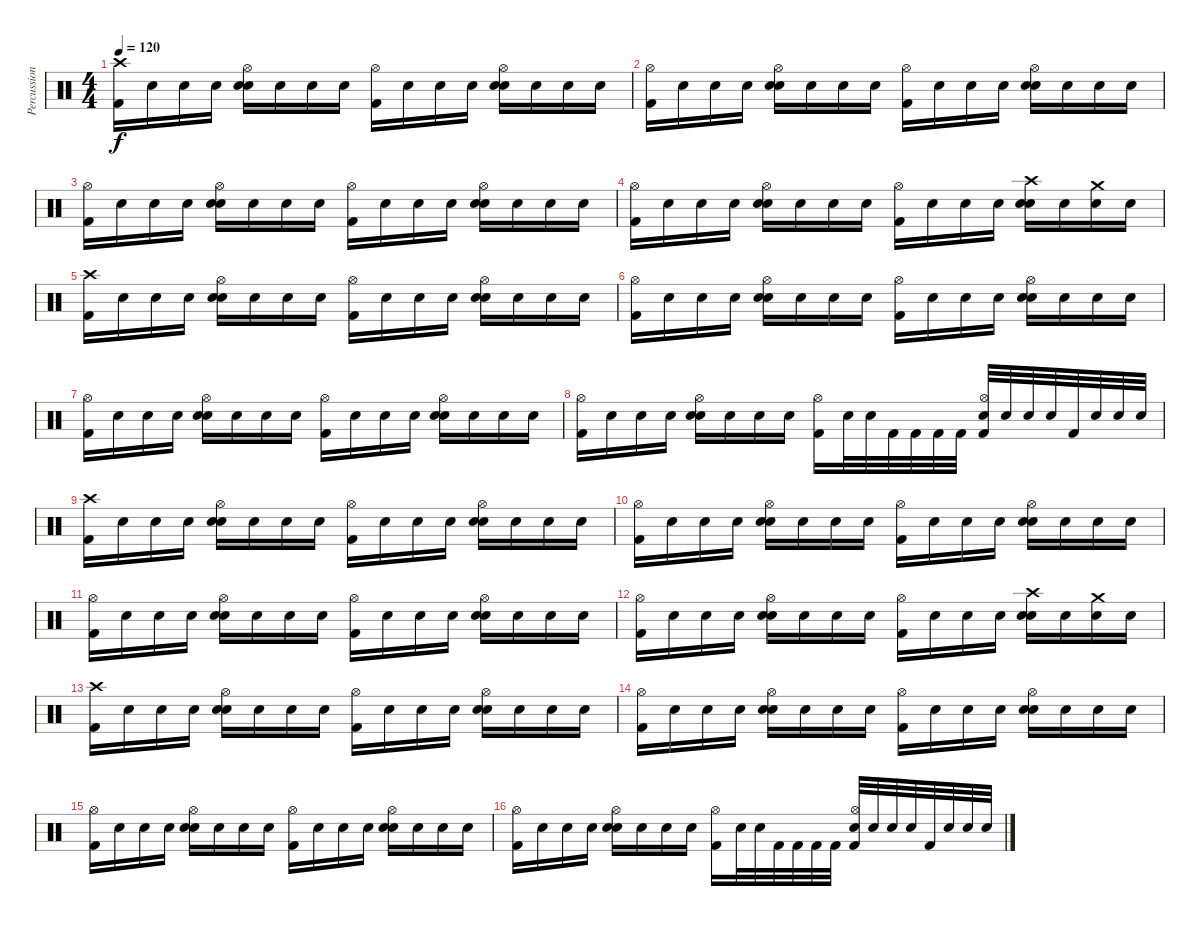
\track ("Percussion" "Percussion") {instrument percussion}
\staff {score}
\articulation defaults
\ts (4 4)
\tempo 120
\clef neutral
\ks c
("Crash high (hit)" "Kick (hit) 2").16{dy f} "Snare (hit)".16 "Snare (hit)".16 "Snare (hit)".16 ("Hi-Hat (open)" "Electric Snare (hit)" "Snare (hit)").16 "Snare (hit)".16 "Snare (hit)".16 "Snare (hit)".16 ("Hi-Hat (open)" "Kick (hit) 2").16 "Snare (hit)".16 "Snare (hit)".16 "Snare (hit)".16 ("Hi-Hat (open)" "Electric Snare (hit)" "Snare (hit)").16 "Snare (hit)".16 "Snare (hit)".16 "Snare (hit)".16 |
("Hi-Hat (open)" "Kick (hit) 2").16 "Snare (hit)".16 "Snare (hit)".16 "Snare (hit)".16 ("Hi-Hat (open)" "Electric Snare (hit)" "Snare (hit)").16 "Snare (hit)".16 "Snare (hit)".16 "Snare (hit)".16 ("Hi-Hat (open)" "Kick (hit) 2").16 "Snare (hit)".16 "Snare (hit)".16 "Snare (hit)".16 ("Hi-Hat (open)" "Electric Snare (hit)" "Snare (hit)").16 "Snare (hit)".16 "Snare (hit)".16 "Snare (hit)".16 |
("Hi-Hat (open)" "Kick (hit) 2").16 "Snare (hit)".16 "Snare (hit)".16 "Snare (hit)".16 ("Hi-Hat (open)" "Electric Snare (hit)" "Snare (hit)").16 "Snare (hit)".16 "Snare (hit)".16 "Snare (hit)".16 ("Hi-Hat (open)" "Kick (hit) 2").16 "Snare (hit)".16 "Snare (hit)".16 "Snare (hit)".16 ("Hi-Hat (open)" "Electric Snare (hit)" "Snare (hit)").16 "Snare (hit)".16 "Snare (hit)".16 "Snare (hit)".16 |
("Hi-Hat (open)" "Kick (hit) 2").16 "Snare (hit)".16 "Snare (hit)".16 "Snare (hit)".16 ("Hi-Hat (open)" "Electric Snare (hit)" "Snare (hit)").16 "Snare (hit)".16 "Snare (hit)".16 "Snare (hit)".16 ("Hi-Hat (open)" "Kick (hit) 2").16 "Snare (hit)".16 "Snare (hit)".16 "Snare (hit)".16 ("Crash high (hit)" "Electric Snare (hit)" "Snare (hit)").16 "Snare (hit)".16 ("Crash medium (hit)" "Snare (hit)").16 "Snare (hit)".16 |
("Crash high (hit)" "Kick (hit) 2").16 "Snare (hit)".16 "Snare (hit)".16 "Snare (hit)".16 ("Hi-Hat (open)" "Electric Snare (hit)" "Snare (hit)").16 "Snare (hit)".16 "Snare (hit)".16 "Snare (hit)".16 ("Hi-Hat (open)" "Kick (hit) 2").16 "Snare (hit)".16 "Snare (hit)".16 "Snare (hit)".16 ("Hi-Hat (open)" "Electric Snare (hit)" "Snare (hit)").16 "Snare (hit)".16 "Snare (hit)".16 "Snare (hit)".16 |
("Hi-Hat (open)" "Kick (hit) 2").16 "Snare (hit)".16 "Snare (hit)".16 "Snare (hit)".16 ("Hi-Hat (open)" "Electric Snare (hit)" "Snare (hit)").16 "Snare (hit)".16 "Snare (hit)".16 "Snare (hit)".16 ("Hi-Hat (open)" "Kick (hit) 2").16 "Snare (hit)".16 "Snare (hit)".16 "Snare (hit)".16 ("Hi-Hat (open)" "Electric Snare (hit)" "Snare (hit)").16 "Snare (hit)".16 "Snare (hit)".16 "Snare (hit)".16 |
("Hi-Hat (open)" "Kick (hit) 2").16 "Snare (hit)".16 "Snare (hit)".16 "Snare (hit)".16 ("Hi-Hat (open)" "Electric Snare (hit)" "Snare (hit)").16 "Snare (hit)".16 "Snare (hit)".16 "Snare (hit)".16 ("Hi-Hat (open)" "Kick (hit) 2").16 "Snare (hit)".16 "Snare (hit)".16 "Snare (hit)".16 ("Hi-Hat (open)" "Electric Snare (hit)" "Snare (hit)").16 "Snare (hit)".16 "Snare (hit)".16 "Snare (hit)".16 |
("Hi-Hat (open)" "Kick (hit) 2").16 "Snare (hit)".16 "Snare (hit)".16 "Snare (hit)".16 ("Hi-Hat (open)" "Electric Snare (hit)" "Snare (hit)").16 "Snare (hit)".16 "Snare (hit)".16 "Snare (hit)".16 ("Hi-Hat (open)" "Kick (hit) 2").16 "Snare (hit)".32 "Snare (hit)".32 "Kick (hit) 2".32 "Kick (hit) 2".32 "Kick (hit) 2".32 "Kick (hit) 2".32 ("Hi-Hat (open)" "Electric Snare (hit)" "Kick (hit) 2").32 "Snare (hit)".32 "Snare (hit)".32 "Snare (hit)".32 "Kick (hit) 2".32 "Snare (hit)".32 "Snare (hit)".32 "Snare (hit)".32 |
("Crash high (hit)" "Kick (hit) 2").16 "Snare (hit)".16 "Snare (hit)".16 "Snare (hit)".16 ("Hi-Hat (open)" "Electric Snare (hit)" "Snare (hit)").16 "Snare (hit)".16 "Snare (hit)".16 "Snare (hit)".16 ("Hi-Hat (open)" "Kick (hit) 2").16 "Snare (hit)".16 "Snare (hit)".16 "Snare (hit)".16 ("Hi-Hat (open)" "Electric Snare (hit)" "Snare (hit)").16 "Snare (hit)".16 "Snare (hit)".16 "Snare (hit)".16 |
("Hi-Hat (open)" "Kick (hit) 2").16 "Snare (hit)".16 "Snare (hit)".16 "Snare (hit)".16 ("Hi-Hat (open)" "Electric Snare (hit)" "Snare (hit)").16 "Snare (hit)".16 "Snare (hit)".16 "Snare (hit)".16 ("Hi-Hat (open)" "Kick (hit) 2").16 "Snare (hit)".16 "Snare (hit)".16 "Snare (hit)".16 ("Hi-Hat (open)" "Electric Snare (hit)" "Snare (hit)").16 "Snare (hit)".16 "Snare (hit)".16 "Snare (hit)".16 |
("Hi-Hat (open)" "Kick (hit) 2").16 "Snare (hit)".16 "Snare (hit)".16 "Snare (hit)".16 ("Hi-Hat (open)" "Electric Snare (hit)" "Snare (hit)").16 "Snare (hit)".16 "Snare (hit)".16 "Snare (hit)".16 ("Hi-Hat (open)" "Kick (hit) 2").16 "Snare (hit)".16 "Snare (hit)".16 "Snare (hit)".16 ("Hi-Hat (open)" "Electric Snare (hit)" "Snare (hit)").16 "Snare (hit)".16 "Snare (hit)".16 "Snare (hit)".16 |
("Hi-Hat (open)" "Kick (hit) 2").16 "Snare (hit)".16 "Snare (hit)".16 "Snare (hit)".16 ("Hi-Hat (open)" "Electric Snare (hit)" "Snare (hit)").16 "Snare (hit)".16 "Snare (hit)".16 "Snare (hit)".16 ("Hi-Hat (open)" "Kick (hit) 2").16 "Snare (hit)".16 "Snare (hit)".16 "Snare (hit)".16 ("Crash high (hit)" "Electric Snare (hit)" "Snare (hit)").16 "Snare (hit)".16 ("Crash medium (hit)" "Snare (hit)").16 "Snare (hit)".16 |
("Crash high (hit)" "Kick (hit) 2").16 "Snare (hit)".16 "Snare (hit)".16 "Snare (hit)".16 ("Hi-Hat (open)" "Electric Snare (hit)" "Snare (hit)").16 "Snare (hit)".16 "Snare (hit)".16 "Snare (hit)".16 ("Hi-Hat (open)" "Kick (hit) 2").16 "Snare (hit)".16 "Snare (hit)".16 "Snare (hit)".16 ("Hi-Hat (open)" "Electric Snare (hit)" "Snare (hit)").16 "Snare (hit)".16 "Snare (hit)".16 "Snare (hit)".16 |
("Hi-Hat (open)" "Kick (hit) 2").16 "Snare (hit)".16 "Snare (hit)".16 "Snare (hit)".16 ("Hi-Hat (open)" "Electric Snare (hit)" "Snare (hit)").16 "Snare (hit)".16 "Snare (hit)".16 "Snare (hit)".16 ("Hi-Hat (open)" "Kick (hit) 2").16 "Snare (hit)".16 "Snare (hit)".16 "Snare (hit)".16 ("Hi-Hat (open)" "Electric Snare (hit)" "Snare (hit)").16 "Snare (hit)".16 "Snare (hit)".16 "Snare (hit)".16 |
("Hi-Hat (open)" "Kick (hit) 2").16 "Snare (hit)".16 "Snare (hit)".16 "Snare (hit)".16 ("Hi-Hat (open)" "Electric Snare (hit)" "Snare (hit)").16 "Snare (hit)".16 "Snare (hit)".16 "Snare (hit)".16 ("Hi-Hat (open)" "Kick (hit) 2").16 "Snare (hit)".16 "Snare (hit)".16 "Snare (hit)".16 ("Hi-Hat (open)" "Electric Snare (hit)" "Snare (hit)").16 "Snare (hit)".16 "Snare (hit)".16 "Snare (hit)".16 |
("Hi-Hat (open)" "Kick (hit) 2").16 "Snare (hit)".16 "Snare (hit)".16 "Snare (hit)".16 ("Hi-Hat (open)" "Electric Snare (hit)" "Snare (hit)").16 "Snare (hit)".16 "Snare (hit)".16 "Snare (hit)".16 ("Hi-Hat (open)" "Kick (hit) 2").16 "Snare (hit)".32 "Snare (hit)".32 "Kick (hit) 2".32 "Kick (hit) 2".32 "Kick (hit) 2".32 "Kick (hit) 2".32 ("Hi-Hat (open)" "Electric Snare (hit)" "Kick (hit) 2").32 "Snare (hit)".32 "Snare (hit)".32 "Snare (hit)".32 "Kick (hit) 2".32 "Snare (hit)".32 "Snare (hit)".32 "Snare (hit)".32
